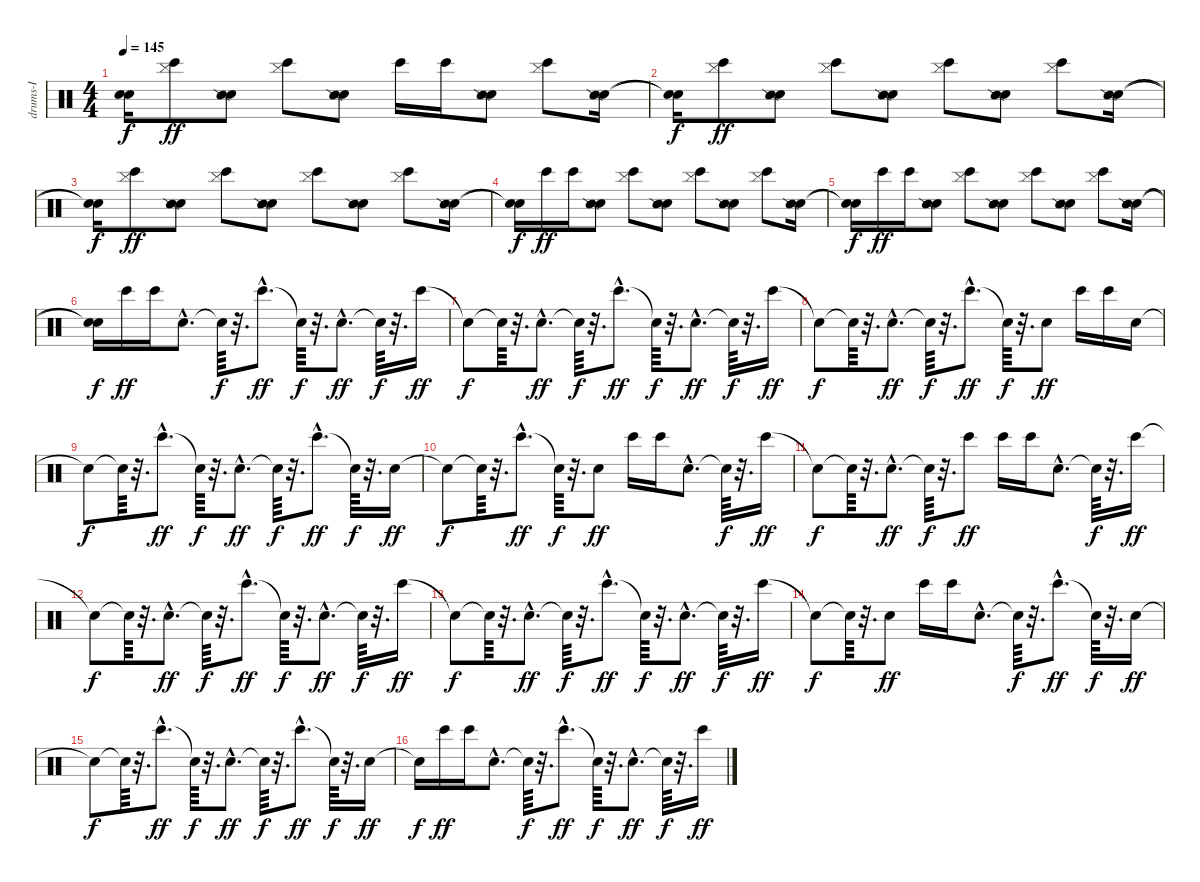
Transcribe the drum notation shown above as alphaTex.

\track ("drums-I" "drums-I") {instrument percussion}
\staff {score}
\articulation defaults
\ts (4 4)
\tempo 145
\clef neutral
\ks c
("Snare (hit)"{t} "Snare (hit)"{t}).16{dy f} ("Bongo High (hit)" "Cymbal (hit)").8{dy ff} ("Snare (hit)" "Snare (side stick) 2").8 ("Bongo High (hit)" "Cymbal (hit)").8 ("Snare (hit)" "Snare (side stick) 2").8 "Bongo High (hit)".16 "Bongo High (hit)".16 ("Snare (hit)" "Snare (side stick) 2").8 ("Bongo High (hit)" "Cymbal (hit)").8 ("Snare (hit)" "Snare (side stick) 2").16 |
("Snare (hit)"{t} "Snare (hit)"{t}).16{dy f} ("Bongo High (hit)" "Cymbal (hit)").8{dy ff} ("Snare (hit)" "Snare (side stick) 2").8 ("Bongo High (hit)" "Cymbal (hit)").8 ("Snare (hit)" "Snare (side stick) 2").8 ("Bongo High (hit)" "Cymbal (hit)").8 ("Snare (hit)" "Snare (side stick) 2").8 ("Bongo High (hit)" "Cymbal (hit)").8 ("Snare (hit)" "Snare (side stick) 2").16 |
("Snare (hit)"{t} "Snare (hit)"{t}).16{dy f} ("Bongo High (hit)" "Cymbal (hit)").8{dy ff} ("Snare (hit)" "Snare (side stick) 2").8 ("Bongo High (hit)" "Cymbal (hit)").8 ("Snare (hit)" "Snare (side stick) 2").8 ("Bongo High (hit)" "Cymbal (hit)").8 ("Snare (hit)" "Snare (side stick) 2").8 ("Bongo High (hit)" "Cymbal (hit)").8 ("Snare (hit)" "Snare (side stick) 2").16 |
("Snare (hit)"{t} "Snare (hit)"{t}).16{dy f} "Bongo High (hit)".16{dy ff} "Bongo High (hit)".16 ("Snare (hit)" "Snare (side stick) 2").8 ("Bongo High (hit)" "Cymbal (hit)").8 ("Snare (hit)" "Snare (side stick) 2").8 ("Bongo High (hit)" "Cymbal (hit)").8 ("Snare (hit)" "Snare (side stick) 2").8 ("Bongo High (hit)" "Cymbal (hit)").8 ("Snare (hit)" "Snare (side stick) 2").16 |
("Snare (hit)"{t} "Snare (hit)"{t}).16{dy f} "Bongo High (hit)".16{dy ff} "Bongo High (hit)".16 ("Snare (hit)" "Snare (side stick) 2").8 ("Bongo High (hit)" "Cymbal (hit)").8 ("Snare (hit)" "Snare (side stick) 2").8 ("Bongo High (hit)" "Cymbal (hit)").8 ("Snare (hit)" "Snare (side stick) 2").8 ("Bongo High (hit)" "Cymbal (hit)").8 ("Snare (hit)" "Snare (side stick) 2").16 |
("Snare (hit)"{t} "Snare (hit)"{t}).16{dy f} "Bongo High (hit)".16{dy ff} "Bongo High (hit)".16 "Snare (hit)"{hac}.8{d} "Snare (hit)"{t}.64{dy f} r.32{d} "Bongo High (hit)"{hac}.8{d dy ff} "Snare (hit)"{t}.64{dy f} r.32{d} "Snare (hit)"{hac}.8{d dy ff} "Snare (hit)"{t}.64{dy f} r.32{d} "Bongo High (hit)".16{dy ff} |
"Snare (hit)"{t}.8{dy f} "Snare (hit)"{t}.64 r.32{d} "Snare (hit)"{hac}.8{d dy ff} "Snare (hit)"{t}.64{dy f} r.32{d} "Bongo High (hit)"{hac}.8{d dy ff} "Snare (hit)"{t}.64{dy f} r.32{d} "Snare (hit)"{hac}.8{d dy ff} "Snare (hit)"{t}.64{dy f} r.32{d} "Bongo High (hit)".16{dy ff} |
"Snare (hit)"{t}.8{dy f} "Snare (hit)"{t}.64 r.32{d} "Snare (hit)"{hac}.8{d dy ff} "Snare (hit)"{t}.64{dy f} r.32{d} "Bongo High (hit)"{hac}.8{d dy ff} "Snare (hit)"{t}.64{dy f} r.32{d} "Snare (hit)".8{dy ff} "Bongo High (hit)".16 "Bongo High (hit)".16 "Snare (hit)".16 |
"Snare (hit)"{t}.8{dy f} "Snare (hit)"{t}.64 r.32{d} "Bongo High (hit)"{hac}.8{d dy ff} "Snare (hit)"{t}.64{dy f} r.32{d} "Snare (hit)"{hac}.8{d dy ff} "Snare (hit)"{t}.64{dy f} r.32{d} "Bongo High (hit)"{hac}.8{d dy ff} "Snare (hit)"{t}.64{dy f} r.32{d} "Snare (hit)".16{dy ff} |
"Snare (hit)"{t}.8{dy f} "Snare (hit)"{t}.64 r.32{d} "Bongo High (hit)"{hac}.8{d dy ff} "Snare (hit)"{t}.64{dy f} r.32{d} "Snare (hit)".8{dy ff} "Bongo High (hit)".16 "Bongo High (hit)".16 "Snare (hit)"{hac}.8{d} "Snare (hit)"{t}.64{dy f} r.32{d} "Bongo High (hit)".16{dy ff} |
"Snare (hit)"{t}.8{dy f} "Snare (hit)"{t}.64 r.32{d} "Snare (hit)"{hac}.8{d dy ff} "Snare (hit)"{t}.64{dy f} r.32{d} "Bongo High (hit)".8{dy ff} "Bongo High (hit)".16 "Bongo High (hit)".16 "Snare (hit)"{hac}.8{d} "Snare (hit)"{t}.64{dy f} r.32{d} "Bongo High (hit)".16{dy ff} |
"Snare (hit)"{t}.8{dy f} "Snare (hit)"{t}.64 r.32{d} "Snare (hit)"{hac}.8{d dy ff} "Snare (hit)"{t}.64{dy f} r.32{d} "Bongo High (hit)"{hac}.8{d dy ff} "Snare (hit)"{t}.64{dy f} r.32{d} "Snare (hit)"{hac}.8{d dy ff} "Snare (hit)"{t}.64{dy f} r.32{d} "Bongo High (hit)".16{dy ff} |
"Snare (hit)"{t}.8{dy f} "Snare (hit)"{t}.64 r.32{d} "Snare (hit)"{hac}.8{d dy ff} "Snare (hit)"{t}.64{dy f} r.32{d} "Bongo High (hit)"{hac}.8{d dy ff} "Snare (hit)"{t}.64{dy f} r.32{d} "Snare (hit)"{hac}.8{d dy ff} "Snare (hit)"{t}.64{dy f} r.32{d} "Bongo High (hit)".16{dy ff} |
"Snare (hit)"{t}.8{dy f} "Snare (hit)"{t}.64 r.32{d} "Snare (hit)".8{dy ff} "Bongo High (hit)".16 "Bongo High (hit)".16 "Snare (hit)"{hac}.8{d} "Snare (hit)"{t}.64{dy f} r.32{d} "Bongo High (hit)"{hac}.8{d dy ff} "Snare (hit)"{t}.64{dy f} r.32{d} "Snare (hit)".16{dy ff} |
"Snare (hit)"{t}.8{dy f} "Snare (hit)"{t}.64 r.32{d} "Bongo High (hit)"{hac}.8{d dy ff} "Snare (hit)"{t}.64{dy f} r.32{d} "Snare (hit)"{hac}.8{d dy ff} "Snare (hit)"{t}.64{dy f} r.32{d} "Bongo High (hit)"{hac}.8{d dy ff} "Snare (hit)"{t}.64{dy f} r.32{d} "Snare (hit)".16{dy ff} |
"Snare (hit)"{t}.16{dy f} "Bongo High (hit)".16{dy ff} "Bongo High (hit)".16 "Snare (hit)"{hac}.8{d} "Snare (hit)"{t}.64{dy f} r.32{d} "Bongo High (hit)"{hac}.8{d dy ff} "Snare (hit)"{t}.64{dy f} r.32{d} "Snare (hit)"{hac}.8{d dy ff} "Snare (hit)"{t}.64{dy f} r.32{d} "Bongo High (hit)".16{dy ff}
